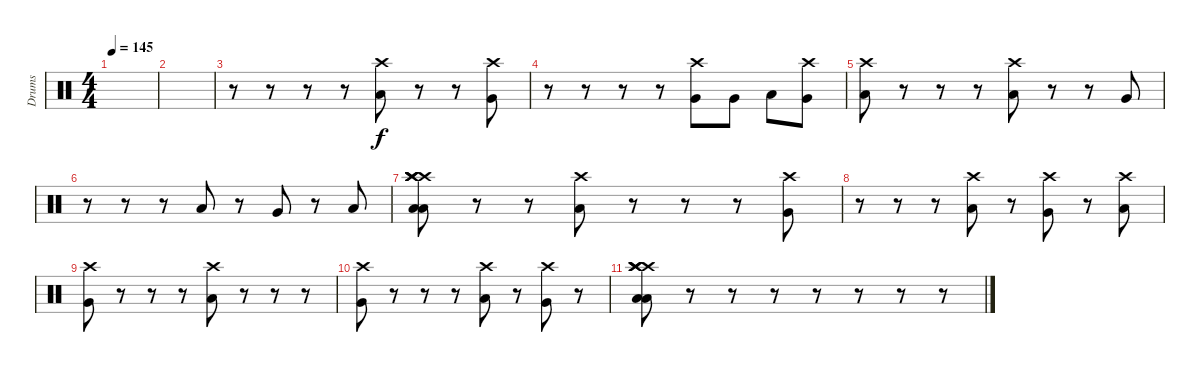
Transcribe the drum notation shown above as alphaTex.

\track ("Drums" "Drums") {instrument percussion}
\staff {score}
\articulation defaults
\ts (4 4)
\tempo 145
\clef neutral
\ks c
|
|
r.8 r.8 r.8 r.8 ("Low Floor Tom (hit)" "Crash high (hit)").8 r.8 r.8 ("Very Low Tom (hit)" "Crash high (hit)").8 |
r.8 r.8 r.8 r.8 ("Very Low Tom (hit)" "Crash high (hit)").8 "Very Low Tom (hit)".8 "Low Floor Tom (hit)".8 ("Very Low Tom (hit)" "Crash high (hit)").8 |
("Low Floor Tom (hit)" "Crash high (hit)").8 r.8 r.8 r.8 ("Low Tom (hit)" "Crash high (hit)").8 r.8 r.8 "Very Low Tom (hit)".8 |
r.8 r.8 r.8 "Low Floor Tom (hit)".8 r.8 "Very Low Tom (hit)".8 r.8 "Low Floor Tom (hit)".8 |
("Crash high (hit)" "Crash high (hit)" "Low Tom (hit)" "Low Tom (hit)" "Crash high (hit)" "Crash high (hit)").8 r.8 r.8 ("Low Floor Tom (hit)" "Crash high (hit)").8 r.8 r.8 r.8 ("Very Low Tom (hit)" "Crash high (hit)").8 |
r.8 r.8 r.8 ("Low Tom (hit)" "Crash high (hit)").8 r.8 ("Very Low Tom (hit)" "Crash high (hit)").8 r.8 ("Low Tom (hit)" "Crash high (hit)").8 |
("Very Low Tom (hit)" "Crash high (hit)").8 r.8 r.8 r.8 ("Low Tom (hit)" "Crash high (hit)").8 r.8 r.8 r.8 |
("Very Low Tom (hit)" "Crash high (hit)").8 r.8 r.8 r.8 ("Low Floor Tom (hit)" "Crash high (hit)").8 r.8 ("Very Low Tom (hit)" "Crash high (hit)").8 r.8 |
("Crash high (hit)" "Crash high (hit)" "Low Floor Tom (hit)" "Low Floor Tom (hit)" "Crash high (hit)" "Crash high (hit)").8 r.8 r.8 r.8 r.8 r.8 r.8 r.8
